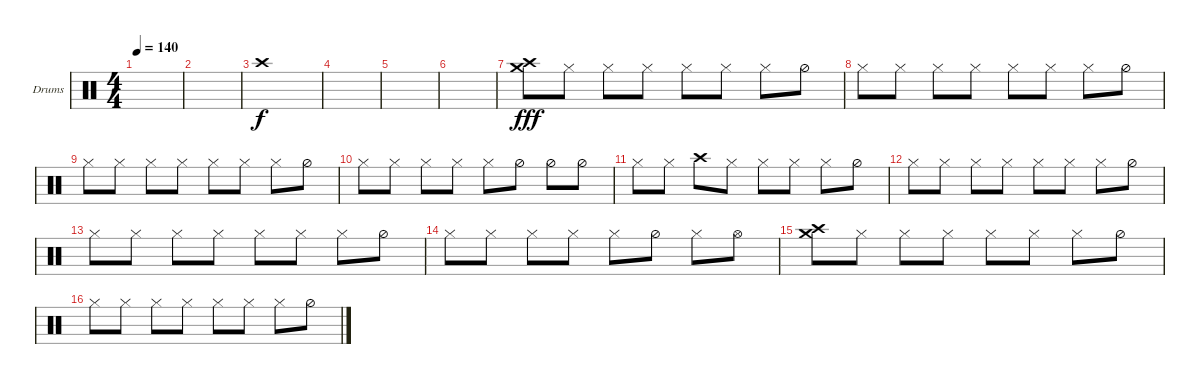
\defaultSystemsLayout 4
\bracketExtendMode groupsimilarinstruments
\firstSystemTrackNameOrientation horizontal
\otherSystemsTrackNameOrientation horizontal
\track ("Helders" "Drums") {instrument percussion}
\staff {score}
\articulation defaults
\ts (4 4)
\tempo 140
\clef neutral
\ks c
|
|
"Crash high (hit)".1 |
|
|
|
("Crash high (hit)" "Crash medium (hit)").8{dy fff} "Hi-Hat (closed)".8 "Hi-Hat (closed)".8 "Hi-Hat (closed)".8 "Hi-Hat (closed)".8 "Hi-Hat (closed)".8 "Hi-Hat (closed)".8 "Hi-Hat (half)".8 |
"Hi-Hat (closed)".8 "Hi-Hat (closed)".8 "Hi-Hat (closed)".8 "Hi-Hat (closed)".8 "Hi-Hat (closed)".8 "Hi-Hat (closed)".8 "Hi-Hat (closed)".8 "Hi-Hat (half)".8 |
"Hi-Hat (closed)".8 "Hi-Hat (closed)".8 "Hi-Hat (closed)".8 "Hi-Hat (closed)".8 "Hi-Hat (closed)".8 "Hi-Hat (closed)".8 "Hi-Hat (closed)".8 "Hi-Hat (half)".8 |
"Hi-Hat (closed)".8 "Hi-Hat (closed)".8 "Hi-Hat (closed)".8 "Hi-Hat (closed)".8 "Hi-Hat (closed)".8 "Hi-Hat (half)".8 "Hi-Hat (half)".8 "Hi-Hat (half)".8 |
"Hi-Hat (closed)".8 "Hi-Hat (closed)".8 "Crash high (hit)".8 "Hi-Hat (closed)".8 "Hi-Hat (closed)".8 "Hi-Hat (closed)".8 "Hi-Hat (closed)".8 "Hi-Hat (half)".8 |
"Hi-Hat (closed)".8 "Hi-Hat (closed)".8 "Hi-Hat (closed)".8 "Hi-Hat (closed)".8 "Hi-Hat (closed)".8 "Hi-Hat (closed)".8 "Hi-Hat (closed)".8 "Hi-Hat (half)".8 |
"Hi-Hat (closed)".8 "Hi-Hat (closed)".8 "Hi-Hat (closed)".8 "Hi-Hat (closed)".8 "Hi-Hat (closed)".8 "Hi-Hat (closed)".8 "Hi-Hat (closed)".8 "Hi-Hat (half)".8 |
"Hi-Hat (closed)".8 "Hi-Hat (closed)".8 "Hi-Hat (closed)".8 "Hi-Hat (closed)".8 "Hi-Hat (closed)".8 "Hi-Hat (half)".8 "Hi-Hat (closed)".8 "Hi-Hat (open)".8 |
("Crash high (hit)" "Crash medium (hit)").8 "Hi-Hat (closed)".8 "Hi-Hat (closed)".8 "Hi-Hat (closed)".8 "Hi-Hat (closed)".8 "Hi-Hat (closed)".8 "Hi-Hat (closed)".8 "Hi-Hat (half)".8 |
"Hi-Hat (closed)".8 "Hi-Hat (closed)".8 "Hi-Hat (closed)".8 "Hi-Hat (closed)".8 "Hi-Hat (closed)".8 "Hi-Hat (closed)".8 "Hi-Hat (closed)".8 "Hi-Hat (half)".8
